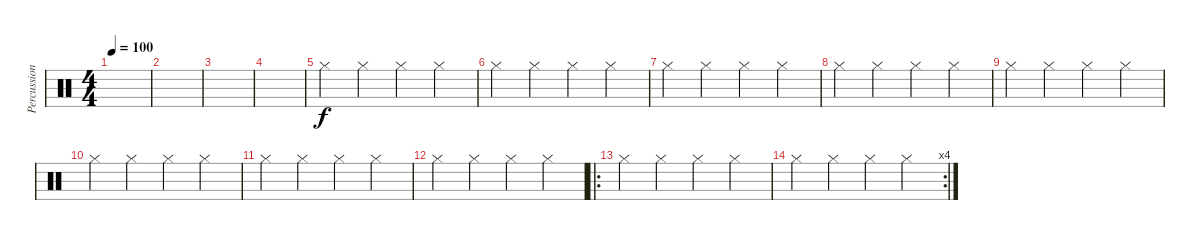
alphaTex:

\track ("Percussion" "Percussion") {instrument percussion}
\staff {score}
\articulation defaults
\ts (4 4)
\tempo 100
\clef neutral
\ks c
|
|
|
|
"Hi-Hat (closed)".4 "Hi-Hat (closed)".4 "Hi-Hat (closed)".4 "Hi-Hat (closed)".4 |
"Hi-Hat (closed)".4 "Hi-Hat (closed)".4 "Hi-Hat (closed)".4 "Hi-Hat (closed)".4 |
"Hi-Hat (closed)".4 "Hi-Hat (closed)".4 "Hi-Hat (closed)".4 "Hi-Hat (closed)".4 |
"Hi-Hat (closed)".4 "Hi-Hat (closed)".4 "Hi-Hat (closed)".4 "Hi-Hat (closed)".4 |
"Hi-Hat (closed)".4 "Hi-Hat (closed)".4 "Hi-Hat (closed)".4 "Hi-Hat (closed)".4 |
"Hi-Hat (closed)".4 "Hi-Hat (closed)".4 "Hi-Hat (closed)".4 "Hi-Hat (closed)".4 |
"Hi-Hat (closed)".4 "Hi-Hat (closed)".4 "Hi-Hat (closed)".4 "Hi-Hat (closed)".4 |
"Hi-Hat (closed)".4 "Hi-Hat (closed)".4 "Hi-Hat (closed)".4 "Hi-Hat (closed)".4 |
\ro "Hi-Hat (closed)".4 "Hi-Hat (closed)".4 "Hi-Hat (closed)".4 "Hi-Hat (closed)".4
|
\rc 4 "Hi-Hat (closed)".4 "Hi-Hat (closed)".4 "Hi-Hat (closed)".4 "Hi-Hat (closed)".4
